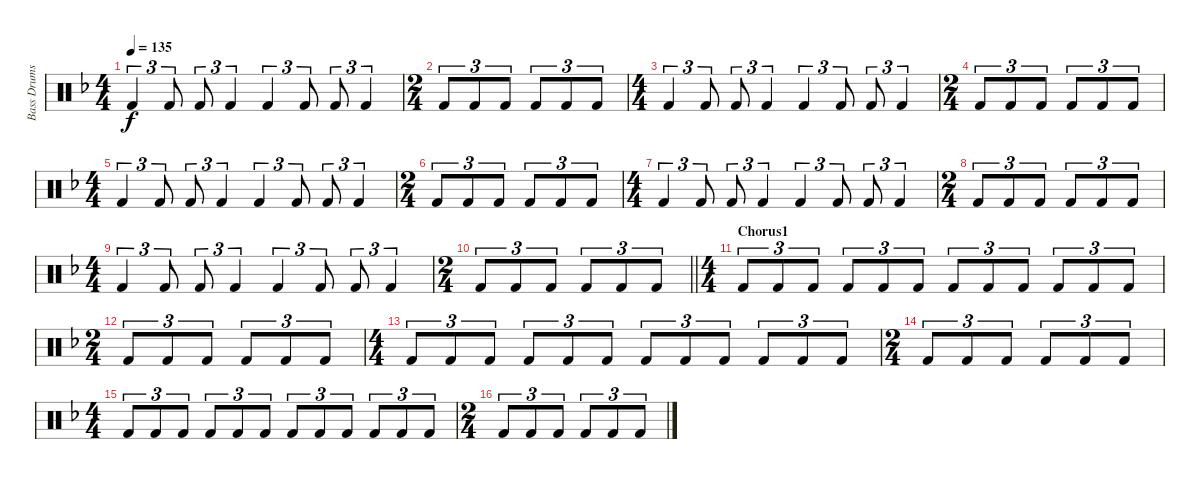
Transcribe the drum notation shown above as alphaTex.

\track ("Bass Drums" "Bass Drums") {instrument percussion}
\staff {score}
\articulation defaults
\ts (4 4)
\tempo 135
\clef neutral
\ks dminor "Kick (hit) 2".4{tu (3 2) dy f} "Kick (hit) 2".8{tu (3 2)} "Kick (hit) 2".8{tu (3 2)} "Kick (hit) 2".4{tu (3 2)} "Kick (hit) 2".4{tu (3 2)} "Kick (hit) 2".8{tu (3 2)} "Kick (hit) 2".8{tu (3 2)} "Kick (hit) 2".4{tu (3 2)}
|
\ts (2 4)
"Kick (hit) 2".8{tu (3 2)} "Kick (hit) 2".8{tu (3 2)} "Kick (hit) 2".8{tu (3 2)} "Kick (hit) 2".8{tu (3 2)} "Kick (hit) 2".8{tu (3 2)} "Kick (hit) 2".8{tu (3 2)} |
\ts (4 4)
"Kick (hit) 2".4{tu (3 2)} "Kick (hit) 2".8{tu (3 2)} "Kick (hit) 2".8{tu (3 2)} "Kick (hit) 2".4{tu (3 2)} "Kick (hit) 2".4{tu (3 2)} "Kick (hit) 2".8{tu (3 2)} "Kick (hit) 2".8{tu (3 2)} "Kick (hit) 2".4{tu (3 2)} |
\ts (2 4)
"Kick (hit) 2".8{tu (3 2)} "Kick (hit) 2".8{tu (3 2)} "Kick (hit) 2".8{tu (3 2)} "Kick (hit) 2".8{tu (3 2)} "Kick (hit) 2".8{tu (3 2)} "Kick (hit) 2".8{tu (3 2)} |
\ts (4 4)
"Kick (hit) 2".4{tu (3 2)} "Kick (hit) 2".8{tu (3 2)} "Kick (hit) 2".8{tu (3 2)} "Kick (hit) 2".4{tu (3 2)} "Kick (hit) 2".4{tu (3 2)} "Kick (hit) 2".8{tu (3 2)} "Kick (hit) 2".8{tu (3 2)} "Kick (hit) 2".4{tu (3 2)} |
\ts (2 4)
"Kick (hit) 2".8{tu (3 2)} "Kick (hit) 2".8{tu (3 2)} "Kick (hit) 2".8{tu (3 2)} "Kick (hit) 2".8{tu (3 2)} "Kick (hit) 2".8{tu (3 2)} "Kick (hit) 2".8{tu (3 2)} |
\ts (4 4)
"Kick (hit) 2".4{tu (3 2)} "Kick (hit) 2".8{tu (3 2)} "Kick (hit) 2".8{tu (3 2)} "Kick (hit) 2".4{tu (3 2)} "Kick (hit) 2".4{tu (3 2)} "Kick (hit) 2".8{tu (3 2)} "Kick (hit) 2".8{tu (3 2)} "Kick (hit) 2".4{tu (3 2)} |
\ts (2 4)
"Kick (hit) 2".8{tu (3 2)} "Kick (hit) 2".8{tu (3 2)} "Kick (hit) 2".8{tu (3 2)} "Kick (hit) 2".8{tu (3 2)} "Kick (hit) 2".8{tu (3 2)} "Kick (hit) 2".8{tu (3 2)} |
\ts (4 4)
"Kick (hit) 2".4{tu (3 2)} "Kick (hit) 2".8{tu (3 2)} "Kick (hit) 2".8{tu (3 2)} "Kick (hit) 2".4{tu (3 2)} "Kick (hit) 2".4{tu (3 2)} "Kick (hit) 2".8{tu (3 2)} "Kick (hit) 2".8{tu (3 2)} "Kick (hit) 2".4{tu (3 2)} |
\ts (2 4)
\barLineRight lightlight "Kick (hit) 2".8{tu (3 2)} "Kick (hit) 2".8{tu (3 2)} "Kick (hit) 2".8{tu (3 2)} "Kick (hit) 2".8{tu (3 2)} "Kick (hit) 2".8{tu (3 2)} "Kick (hit) 2".8{tu (3 2)}
|
\ts (4 4)
\section ("" "Chorus1")
"Kick (hit) 2".8{tu (3 2)} "Kick (hit) 2".8{tu (3 2)} "Kick (hit) 2".8{tu (3 2)} "Kick (hit) 2".8{tu (3 2)} "Kick (hit) 2".8{tu (3 2)} "Kick (hit) 2".8{tu (3 2)} "Kick (hit) 2".8{tu (3 2)} "Kick (hit) 2".8{tu (3 2)} "Kick (hit) 2".8{tu (3 2)} "Kick (hit) 2".8{tu (3 2)} "Kick (hit) 2".8{tu (3 2)} "Kick (hit) 2".8{tu (3 2)} |
\ts (2 4)
"Kick (hit) 2".8{tu (3 2)} "Kick (hit) 2".8{tu (3 2)} "Kick (hit) 2".8{tu (3 2)} "Kick (hit) 2".8{tu (3 2)} "Kick (hit) 2".8{tu (3 2)} "Kick (hit) 2".8{tu (3 2)} |
\ts (4 4)
"Kick (hit) 2".8{tu (3 2)} "Kick (hit) 2".8{tu (3 2)} "Kick (hit) 2".8{tu (3 2)} "Kick (hit) 2".8{tu (3 2)} "Kick (hit) 2".8{tu (3 2)} "Kick (hit) 2".8{tu (3 2)} "Kick (hit) 2".8{tu (3 2)} "Kick (hit) 2".8{tu (3 2)} "Kick (hit) 2".8{tu (3 2)} "Kick (hit) 2".8{tu (3 2)} "Kick (hit) 2".8{tu (3 2)} "Kick (hit) 2".8{tu (3 2)} |
\ts (2 4)
"Kick (hit) 2".8{tu (3 2)} "Kick (hit) 2".8{tu (3 2)} "Kick (hit) 2".8{tu (3 2)} "Kick (hit) 2".8{tu (3 2)} "Kick (hit) 2".8{tu (3 2)} "Kick (hit) 2".8{tu (3 2)} |
\ts (4 4)
"Kick (hit) 2".8{tu (3 2)} "Kick (hit) 2".8{tu (3 2)} "Kick (hit) 2".8{tu (3 2)} "Kick (hit) 2".8{tu (3 2)} "Kick (hit) 2".8{tu (3 2)} "Kick (hit) 2".8{tu (3 2)} "Kick (hit) 2".8{tu (3 2)} "Kick (hit) 2".8{tu (3 2)} "Kick (hit) 2".8{tu (3 2)} "Kick (hit) 2".8{tu (3 2)} "Kick (hit) 2".8{tu (3 2)} "Kick (hit) 2".8{tu (3 2)} |
\ts (2 4)
"Kick (hit) 2".8{tu (3 2)} "Kick (hit) 2".8{tu (3 2)} "Kick (hit) 2".8{tu (3 2)} "Kick (hit) 2".8{tu (3 2)} "Kick (hit) 2".8{tu (3 2)} "Kick (hit) 2".8{tu (3 2)}
